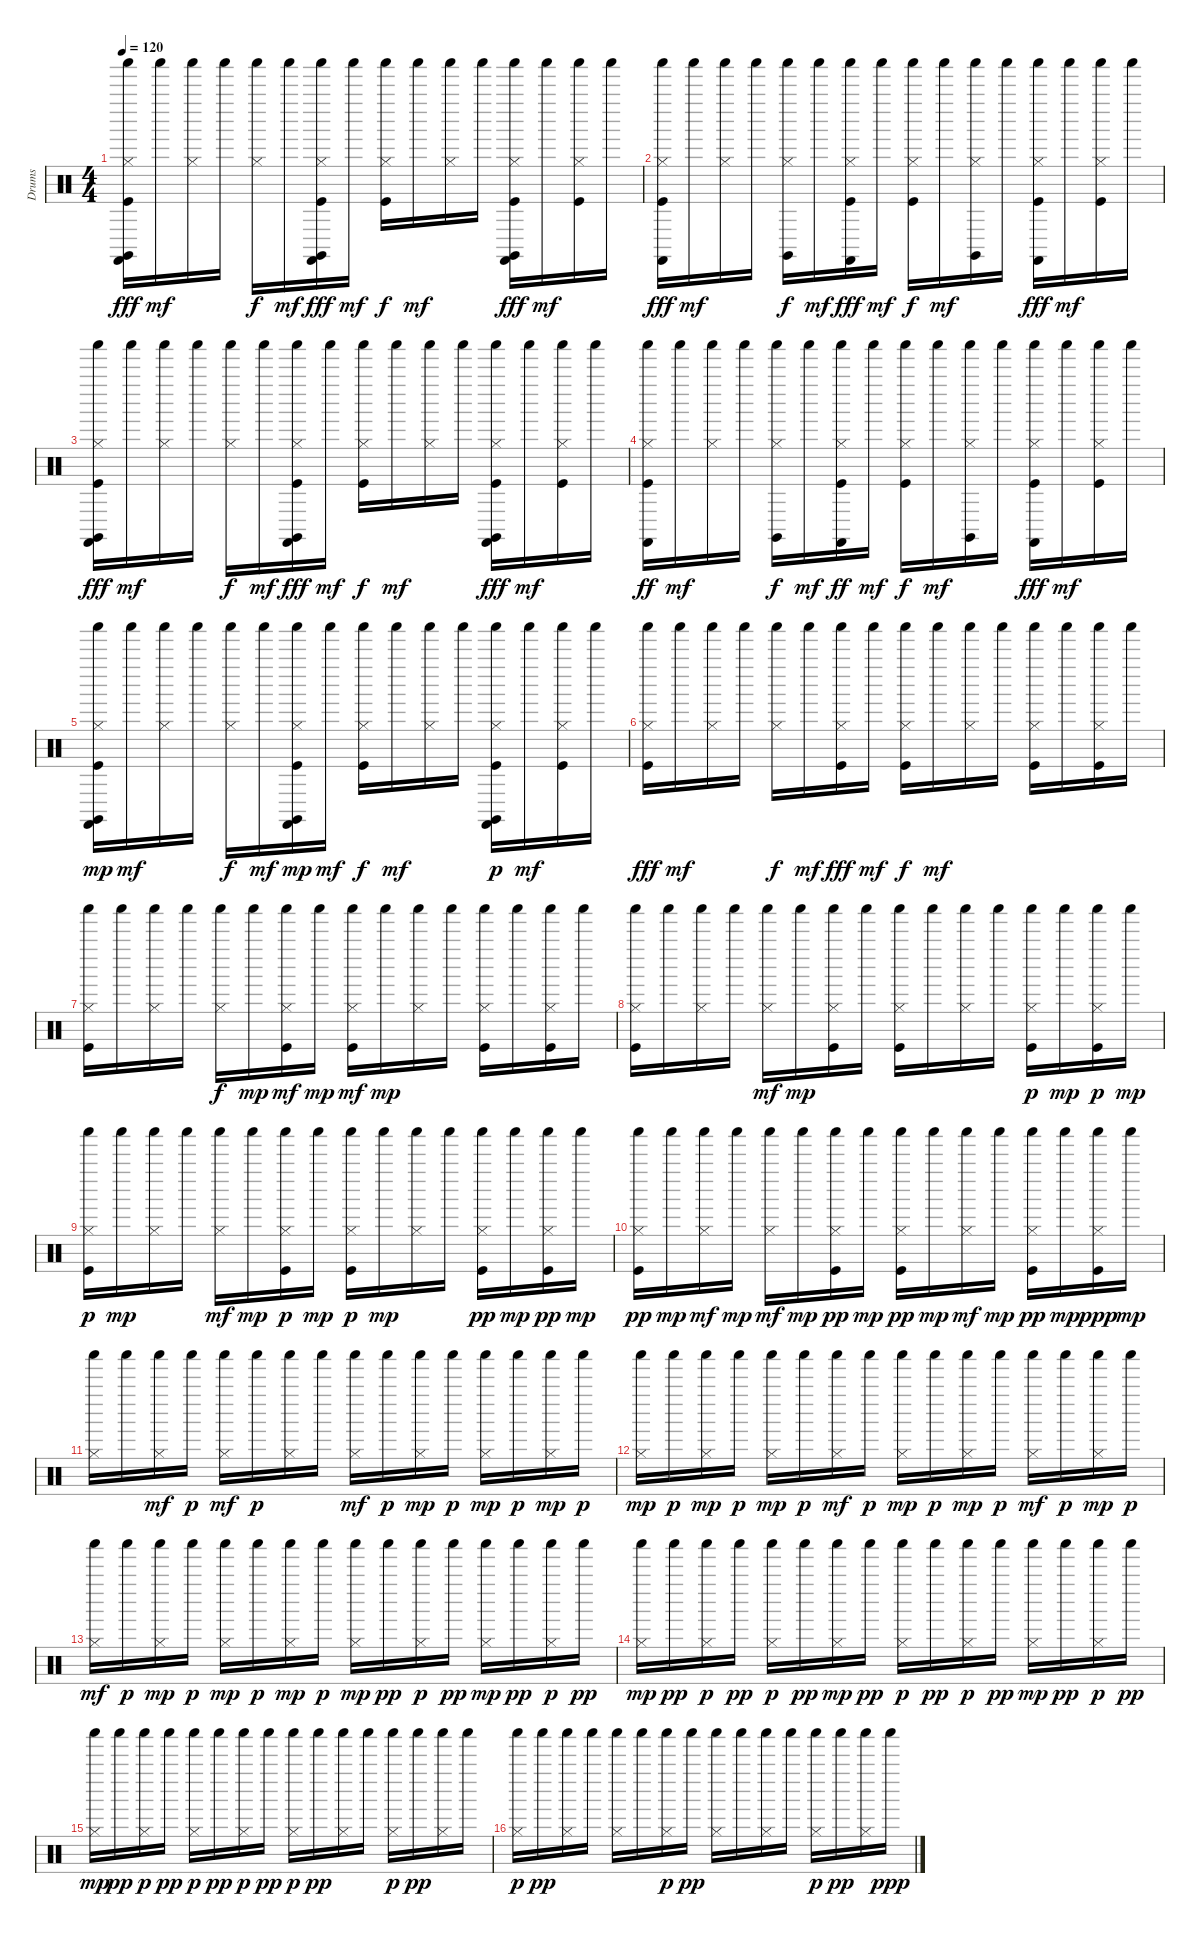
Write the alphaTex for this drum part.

\track ("Drums" "Drums") {instrument percussion}
\staff {score}
\articulation defaults
\ts (4 4)
\tempo 120
\clef neutral
\ks c
("Shaker (hit)" "Hi-Hat (closed)" "Castanets (hit)" "Claves (hit)" "Kick (hit)").16{dy fff} "Shaker (hit)".16{dy mf} ("Shaker (hit)" "Hi-Hat (closed)").16 "Shaker (hit)".16 ("Shaker (hit)" "Hi-Hat (closed)").16{dy f} "Shaker (hit)".16{dy mf} ("Shaker (hit)" "Hi-Hat (closed)" "Castanets (hit)" "Claves (hit)" "Kick (hit)").16{dy fff} "Shaker (hit)".16{dy mf} ("Shaker (hit)" "Hi-Hat (closed)" "Kick (hit)").16{dy f} "Shaker (hit)".16{dy mf} ("Shaker (hit)" "Hi-Hat (closed)").16 "Shaker (hit)".16 ("Shaker (hit)" "Hi-Hat (closed)" "Castanets (hit)" "Claves (hit)" "Kick (hit)").16{dy fff} "Shaker (hit)".16{dy mf} ("Shaker (hit)" "Hi-Hat (closed)" "Kick (hit)").16 "Shaker (hit)".16 |
("Shaker (hit)" "Hi-Hat (closed)" "Castanets (hit)" "Kick (hit)").16{dy fff} "Shaker (hit)".16{dy mf} ("Shaker (hit)" "Hi-Hat (closed)").16 "Shaker (hit)".16 ("Shaker (hit)" "Hi-Hat (closed)" "Claves (hit)").16{dy f} "Shaker (hit)".16{dy mf} ("Shaker (hit)" "Hi-Hat (closed)" "Castanets (hit)" "Kick (hit)").16{dy fff} "Shaker (hit)".16{dy mf} ("Shaker (hit)" "Hi-Hat (closed)" "Kick (hit)").16{dy f} "Shaker (hit)".16{dy mf} ("Shaker (hit)" "Hi-Hat (closed)" "Claves (hit)").16 "Shaker (hit)".16 ("Shaker (hit)" "Hi-Hat (closed)" "Castanets (hit)" "Kick (hit)").16{dy fff} "Shaker (hit)".16{dy mf} ("Shaker (hit)" "Hi-Hat (closed)" "Kick (hit)").16 "Shaker (hit)".16 |
("Shaker (hit)" "Hi-Hat (closed)" "Castanets (hit)" "Claves (hit)" "Kick (hit)").16{dy fff} "Shaker (hit)".16{dy mf} ("Shaker (hit)" "Hi-Hat (closed)").16 "Shaker (hit)".16 ("Shaker (hit)" "Hi-Hat (closed)").16{dy f} "Shaker (hit)".16{dy mf} ("Shaker (hit)" "Hi-Hat (closed)" "Castanets (hit)" "Claves (hit)" "Kick (hit)").16{dy fff} "Shaker (hit)".16{dy mf} ("Shaker (hit)" "Hi-Hat (closed)" "Kick (hit)").16{dy f} "Shaker (hit)".16{dy mf} ("Shaker (hit)" "Hi-Hat (closed)").16 "Shaker (hit)".16 ("Shaker (hit)" "Hi-Hat (closed)" "Castanets (hit)" "Claves (hit)" "Kick (hit)").16{dy fff} "Shaker (hit)".16{dy mf} ("Shaker (hit)" "Hi-Hat (closed)" "Kick (hit)").16 "Shaker (hit)".16 |
("Shaker (hit)" "Hi-Hat (closed)" "Castanets (hit)" "Kick (hit)").16{dy ff} "Shaker (hit)".16{dy mf} ("Shaker (hit)" "Hi-Hat (closed)").16 "Shaker (hit)".16 ("Shaker (hit)" "Hi-Hat (closed)" "Claves (hit)").16{dy f} "Shaker (hit)".16{dy mf} ("Shaker (hit)" "Hi-Hat (closed)" "Castanets (hit)" "Kick (hit)").16{dy ff} "Shaker (hit)".16{dy mf} ("Shaker (hit)" "Hi-Hat (closed)" "Kick (hit)").16{dy f} "Shaker (hit)".16{dy mf} ("Shaker (hit)" "Hi-Hat (closed)" "Claves (hit)").16 "Shaker (hit)".16 ("Shaker (hit)" "Hi-Hat (closed)" "Castanets (hit)" "Kick (hit)").16{dy fff} "Shaker (hit)".16{dy mf} ("Shaker (hit)" "Hi-Hat (closed)" "Kick (hit)").16 "Shaker (hit)".16 |
("Shaker (hit)" "Hi-Hat (closed)" "Castanets (hit)" "Claves (hit)" "Kick (hit)").16{dy mp} "Shaker (hit)".16{dy mf} ("Shaker (hit)" "Hi-Hat (closed)").16 "Shaker (hit)".16 ("Shaker (hit)" "Hi-Hat (closed)").16{dy f} "Shaker (hit)".16{dy mf} ("Shaker (hit)" "Hi-Hat (closed)" "Castanets (hit)" "Claves (hit)" "Kick (hit)").16{dy mp} "Shaker (hit)".16{dy mf} ("Shaker (hit)" "Hi-Hat (closed)" "Kick (hit)").16{dy f} "Shaker (hit)".16{dy mf} ("Shaker (hit)" "Hi-Hat (closed)").16 "Shaker (hit)".16 ("Shaker (hit)" "Hi-Hat (closed)" "Castanets (hit)" "Claves (hit)" "Kick (hit)").16{dy p} "Shaker (hit)".16{dy mf} ("Shaker (hit)" "Hi-Hat (closed)" "Kick (hit)").16 "Shaker (hit)".16 |
("Shaker (hit)" "Hi-Hat (closed)" "Kick (hit)").16{dy fff} "Shaker (hit)".16{dy mf} ("Shaker (hit)" "Hi-Hat (closed)").16 "Shaker (hit)".16 ("Shaker (hit)" "Hi-Hat (closed)").16{dy f} "Shaker (hit)".16{dy mf} ("Shaker (hit)" "Hi-Hat (closed)" "Kick (hit)").16{dy fff} "Shaker (hit)".16{dy mf} ("Shaker (hit)" "Hi-Hat (closed)" "Kick (hit)").16{dy f} "Shaker (hit)".16{dy mf} ("Shaker (hit)" "Hi-Hat (closed)").16 "Shaker (hit)".16 ("Shaker (hit)" "Hi-Hat (closed)" "Kick (hit)").16 "Shaker (hit)".16 ("Shaker (hit)" "Hi-Hat (closed)" "Kick (hit)").16 "Shaker (hit)".16 |
("Shaker (hit)" "Hi-Hat (closed)" "Kick (hit)").16 "Shaker (hit)".16 ("Shaker (hit)" "Hi-Hat (closed)").16 "Shaker (hit)".16 ("Shaker (hit)" "Hi-Hat (closed)").16{dy f} "Shaker (hit)".16{dy mp} ("Shaker (hit)" "Hi-Hat (closed)" "Kick (hit)").16{dy mf} "Shaker (hit)".16{dy mp} ("Shaker (hit)" "Hi-Hat (closed)" "Kick (hit)").16{dy mf} "Shaker (hit)".16{dy mp} ("Shaker (hit)" "Hi-Hat (closed)").16 "Shaker (hit)".16 ("Shaker (hit)" "Hi-Hat (closed)" "Kick (hit)").16 "Shaker (hit)".16 ("Shaker (hit)" "Hi-Hat (closed)" "Kick (hit)").16 "Shaker (hit)".16 |
("Shaker (hit)" "Hi-Hat (closed)" "Kick (hit)").16 "Shaker (hit)".16 ("Shaker (hit)" "Hi-Hat (closed)").16 "Shaker (hit)".16 ("Shaker (hit)" "Hi-Hat (closed)").16{dy mf} "Shaker (hit)".16{dy mp} ("Shaker (hit)" "Hi-Hat (closed)" "Kick (hit)").16 "Shaker (hit)".16 ("Shaker (hit)" "Hi-Hat (closed)" "Kick (hit)").16 "Shaker (hit)".16 ("Shaker (hit)" "Hi-Hat (closed)").16 "Shaker (hit)".16 ("Shaker (hit)" "Hi-Hat (closed)" "Kick (hit)").16{dy p} "Shaker (hit)".16{dy mp} ("Shaker (hit)" "Hi-Hat (closed)" "Kick (hit)").16{dy p} "Shaker (hit)".16{dy mp} |
("Shaker (hit)" "Hi-Hat (closed)" "Kick (hit)").16{dy p} "Shaker (hit)".16{dy mp} ("Shaker (hit)" "Hi-Hat (closed)").16 "Shaker (hit)".16 ("Shaker (hit)" "Hi-Hat (closed)").16{dy mf} "Shaker (hit)".16{dy mp} ("Shaker (hit)" "Hi-Hat (closed)" "Kick (hit)").16{dy p} "Shaker (hit)".16{dy mp} ("Shaker (hit)" "Hi-Hat (closed)" "Kick (hit)").16{dy p} "Shaker (hit)".16{dy mp} ("Shaker (hit)" "Hi-Hat (closed)").16 "Shaker (hit)".16 ("Shaker (hit)" "Hi-Hat (closed)" "Kick (hit)").16{dy pp} "Shaker (hit)".16{dy mp} ("Shaker (hit)" "Hi-Hat (closed)" "Kick (hit)").16{dy pp} "Shaker (hit)".16{dy mp} |
("Shaker (hit)" "Hi-Hat (closed)" "Kick (hit)").16{dy pp} "Shaker (hit)".16{dy mp} ("Shaker (hit)" "Hi-Hat (closed)").16{dy mf} "Shaker (hit)".16{dy mp} ("Shaker (hit)" "Hi-Hat (closed)").16{dy mf} "Shaker (hit)".16{dy mp} ("Shaker (hit)" "Hi-Hat (closed)" "Kick (hit)").16{dy pp} "Shaker (hit)".16{dy mp} ("Shaker (hit)" "Hi-Hat (closed)" "Kick (hit)").16{dy pp} "Shaker (hit)".16{dy mp} ("Shaker (hit)" "Hi-Hat (closed)").16{dy mf} "Shaker (hit)".16{dy mp} ("Shaker (hit)" "Hi-Hat (closed)" "Kick (hit)").16{dy pp} "Shaker (hit)".16{dy mp} ("Shaker (hit)" "Hi-Hat (closed)" "Kick (hit)").16{dy ppp} "Shaker (hit)".16{dy mp} |
("Shaker (hit)" "Hi-Hat (closed)").16 "Shaker (hit)".16 ("Shaker (hit)" "Hi-Hat (closed)").16{dy mf} "Shaker (hit)".16{dy p} ("Shaker (hit)" "Hi-Hat (closed)").16{dy mf} "Shaker (hit)".16{dy p} ("Shaker (hit)" "Hi-Hat (closed)").16 "Shaker (hit)".16 ("Shaker (hit)" "Hi-Hat (closed)").16{dy mf} "Shaker (hit)".16{dy p} ("Shaker (hit)" "Hi-Hat (closed)").16{dy mp} "Shaker (hit)".16{dy p} ("Shaker (hit)" "Hi-Hat (closed)").16{dy mp} "Shaker (hit)".16{dy p} ("Shaker (hit)" "Hi-Hat (closed)").16{dy mp} "Shaker (hit)".16{dy p} |
("Shaker (hit)" "Hi-Hat (closed)").16{dy mp} "Shaker (hit)".16{dy p} ("Shaker (hit)" "Hi-Hat (closed)").16{dy mp} "Shaker (hit)".16{dy p} ("Shaker (hit)" "Hi-Hat (closed)").16{dy mp} "Shaker (hit)".16{dy p} ("Shaker (hit)" "Hi-Hat (closed)").16{dy mf} "Shaker (hit)".16{dy p} ("Shaker (hit)" "Hi-Hat (closed)").16{dy mp} "Shaker (hit)".16{dy p} ("Shaker (hit)" "Hi-Hat (closed)").16{dy mp} "Shaker (hit)".16{dy p} ("Shaker (hit)" "Hi-Hat (closed)").16{dy mf} "Shaker (hit)".16{dy p} ("Shaker (hit)" "Hi-Hat (closed)").16{dy mp} "Shaker (hit)".16{dy p} |
("Shaker (hit)" "Hi-Hat (closed)").16{dy mf} "Shaker (hit)".16{dy p} ("Shaker (hit)" "Hi-Hat (closed)").16{dy mp} "Shaker (hit)".16{dy p} ("Shaker (hit)" "Hi-Hat (closed)").16{dy mp} "Shaker (hit)".16{dy p} ("Shaker (hit)" "Hi-Hat (closed)").16{dy mp} "Shaker (hit)".16{dy p} ("Shaker (hit)" "Hi-Hat (closed)").16{dy mp} "Shaker (hit)".16{dy pp} ("Shaker (hit)" "Hi-Hat (closed)").16{dy p} "Shaker (hit)".16{dy pp} ("Shaker (hit)" "Hi-Hat (closed)").16{dy mp} "Shaker (hit)".16{dy pp} ("Shaker (hit)" "Hi-Hat (closed)").16{dy p} "Shaker (hit)".16{dy pp} |
("Shaker (hit)" "Hi-Hat (closed)").16{dy mp} "Shaker (hit)".16{dy pp} ("Shaker (hit)" "Hi-Hat (closed)").16{dy p} "Shaker (hit)".16{dy pp} ("Shaker (hit)" "Hi-Hat (closed)").16{dy p} "Shaker (hit)".16{dy pp} ("Shaker (hit)" "Hi-Hat (closed)").16{dy mp} "Shaker (hit)".16{dy pp} ("Shaker (hit)" "Hi-Hat (closed)").16{dy p} "Shaker (hit)".16{dy pp} ("Shaker (hit)" "Hi-Hat (closed)").16{dy p} "Shaker (hit)".16{dy pp} ("Shaker (hit)" "Hi-Hat (closed)").16{dy mp} "Shaker (hit)".16{dy pp} ("Shaker (hit)" "Hi-Hat (closed)").16{dy p} "Shaker (hit)".16{dy pp} |
("Shaker (hit)" "Hi-Hat (closed)").16{dy mp} "Shaker (hit)".16{dy pp} ("Shaker (hit)" "Hi-Hat (closed)").16{dy p} "Shaker (hit)".16{dy pp} ("Shaker (hit)" "Hi-Hat (closed)").16{dy p} "Shaker (hit)".16{dy pp} ("Shaker (hit)" "Hi-Hat (closed)").16{dy p} "Shaker (hit)".16{dy pp} ("Shaker (hit)" "Hi-Hat (closed)").16{dy p} "Shaker (hit)".16{dy pp} ("Shaker (hit)" "Hi-Hat (closed)").16 "Shaker (hit)".16 ("Shaker (hit)" "Hi-Hat (closed)").16{dy p} "Shaker (hit)".16{dy pp} ("Shaker (hit)" "Hi-Hat (closed)").16 "Shaker (hit)".16 |
("Shaker (hit)" "Hi-Hat (closed)").16{dy p} "Shaker (hit)".16{dy pp} ("Shaker (hit)" "Hi-Hat (closed)").16 "Shaker (hit)".16 ("Shaker (hit)" "Hi-Hat (closed)").16 "Shaker (hit)".16 ("Shaker (hit)" "Hi-Hat (closed)").16{dy p} "Shaker (hit)".16{dy pp} ("Shaker (hit)" "Hi-Hat (closed)").16 "Shaker (hit)".16 ("Shaker (hit)" "Hi-Hat (closed)").16 "Shaker (hit)".16 ("Shaker (hit)" "Hi-Hat (closed)").16{dy p} "Shaker (hit)".16{dy pp} ("Shaker (hit)" "Hi-Hat (closed)").16 "Shaker (hit)".16{dy ppp}
